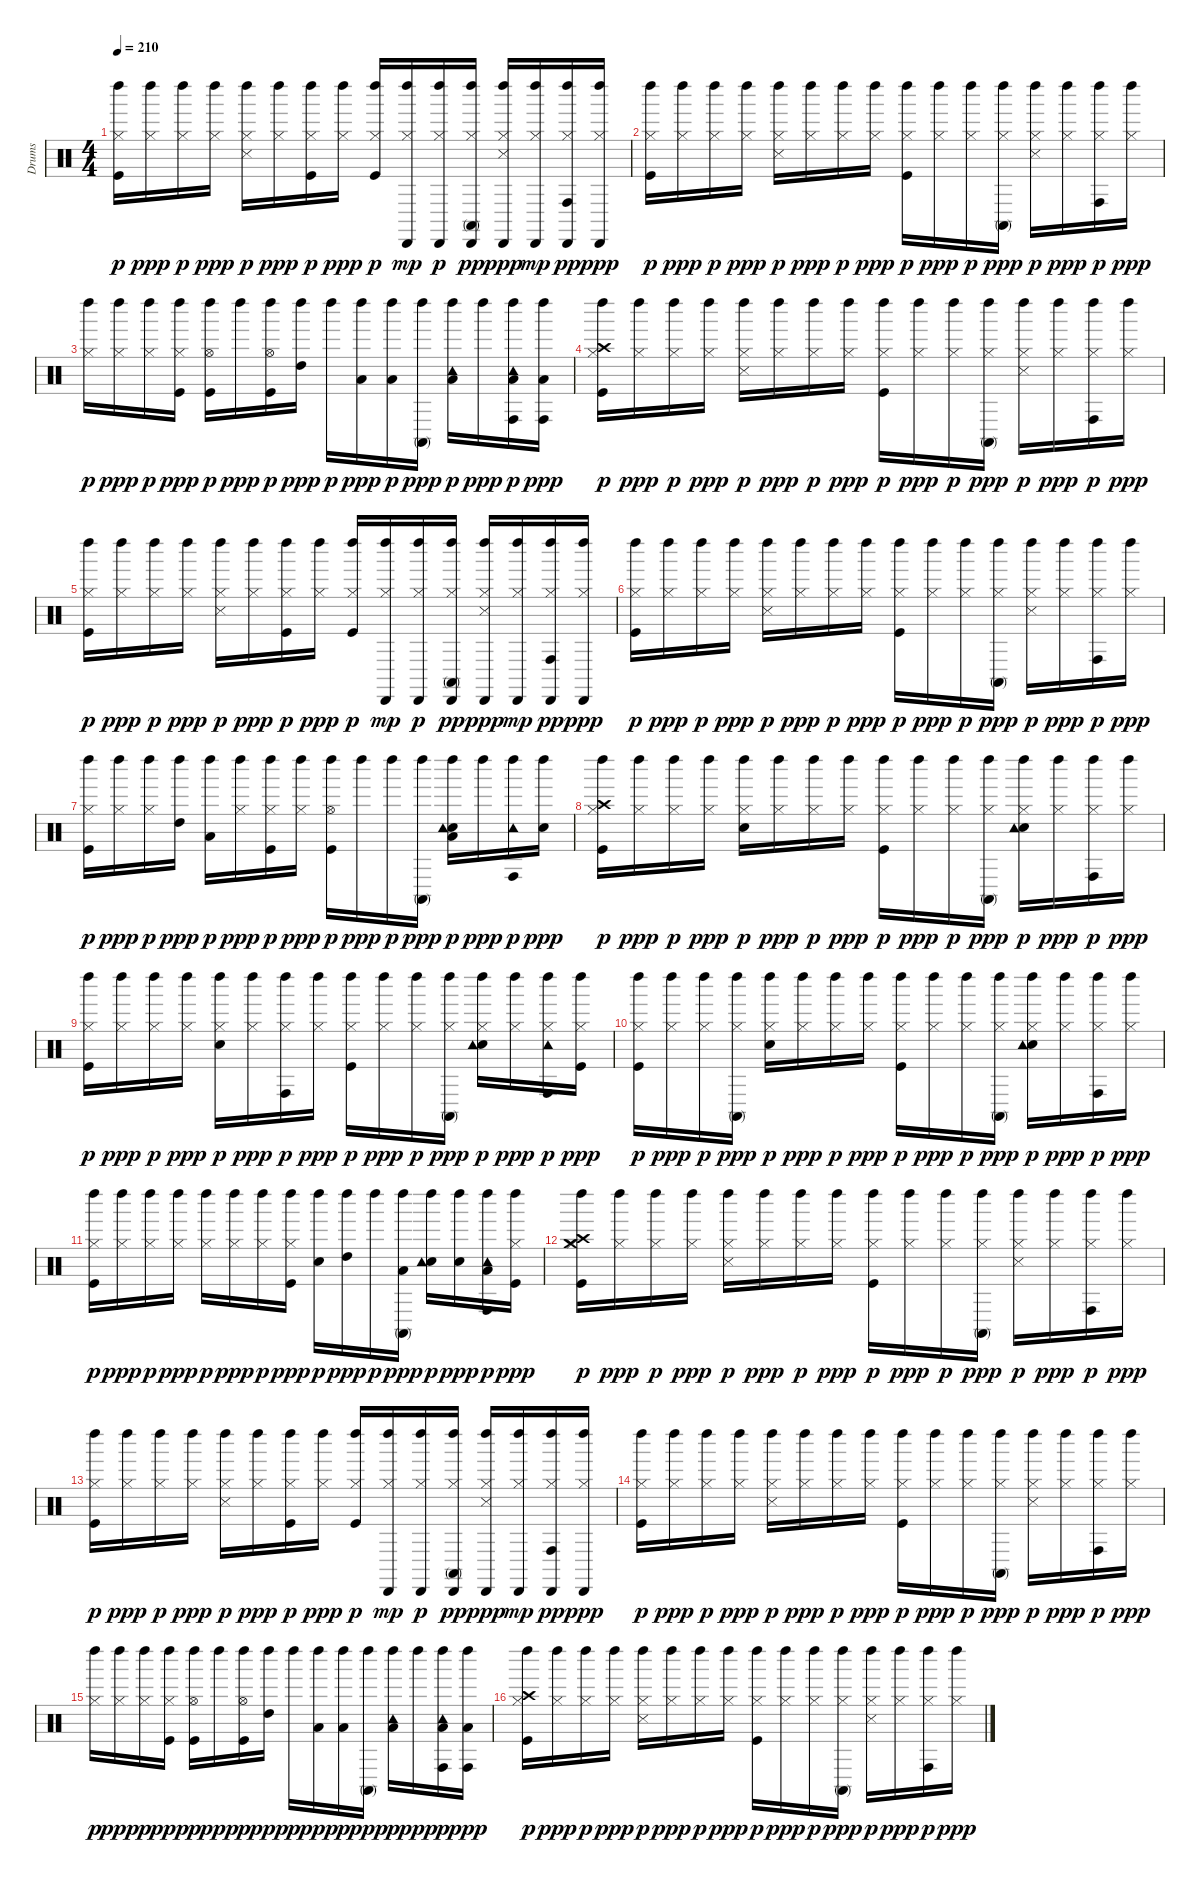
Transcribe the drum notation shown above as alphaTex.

\track ("Drums" "Drums") {instrument percussion}
\staff {score}
\articulation defaults
\ts (4 4)
\tempo 210
\clef neutral
\ks c
("Kick (hit)" "Hi-Hat (closed)" "Left Maraca (hit)").16{dy p} ("Hi-Hat (closed)" "Left Maraca (hit)").16{dy ppp} ("Hi-Hat (closed)" "Left Maraca (hit)").16{dy p} ("Hi-Hat (closed)" "Left Maraca (hit)").16{dy ppp} ("Hi-Hat (closed)" "Snare (side stick) 3" "Left Maraca (hit)").16{dy p} ("Hi-Hat (closed)" "Left Maraca (hit)").16{dy ppp} ("Kick (hit)" "Hi-Hat (closed)" "Left Maraca (hit)").16{dy p} ("Hi-Hat (closed)" "Left Maraca (hit)").16{dy ppp} ("Kick (hit)" "Hi-Hat (closed)" "Left Maraca (hit)").16{dy p} ("Hi-Hat (closed)" "Left Maraca (hit)" "Cabasa (hit)").16{dy mp} ("Hi-Hat (closed)" "Left Maraca (hit)" "Cabasa (hit)").16{dy p} ("Hi-Hat (closed)" "Conga high (mute)" "Left Maraca (hit)" "Cabasa (hit)").16{dy pp} ("Hi-Hat (closed)" "Snare (side stick) 3" "Left Maraca (hit)" "Cabasa (hit)").16{dy ppp} ("Hi-Hat (closed)" "Left Maraca (hit)" "Cabasa (hit)").16{dy mp} ("Hi-Hat (closed)" "Conga high (hit)" "Left Maraca (hit)" "Cabasa (hit)").16{dy pp} ("Hi-Hat (closed)" "Left Maraca (hit)" "Cabasa (hit)").16{dy ppp} |
("Kick (hit)" "Hi-Hat (closed)" "Left Maraca (hit)").16{dy p} ("Hi-Hat (closed)" "Left Maraca (hit)").16{dy ppp} ("Hi-Hat (closed)" "Left Maraca (hit)").16{dy p} ("Hi-Hat (closed)" "Left Maraca (hit)").16{dy ppp} ("Hi-Hat (closed)" "Snare (side stick) 3" "Left Maraca (hit)").16{dy p} ("Hi-Hat (closed)" "Left Maraca (hit)").16{dy ppp} ("Hi-Hat (closed)" "Left Maraca (hit)").16{dy p} ("Hi-Hat (closed)" "Left Maraca (hit)").16{dy ppp} ("Kick (hit)" "Hi-Hat (closed)" "Left Maraca (hit)").16{dy p} ("Hi-Hat (closed)" "Left Maraca (hit)").16{dy ppp} ("Hi-Hat (closed)" "Left Maraca (hit)").16{dy p} ("Hi-Hat (closed)" "Conga high (mute)" "Left Maraca (hit)").16{dy ppp} ("Hi-Hat (closed)" "Snare (side stick) 3" "Left Maraca (hit)").16{dy p} ("Hi-Hat (closed)" "Left Maraca (hit)").16{dy ppp} ("Hi-Hat (closed)" "Conga high (hit)" "Left Maraca (hit)").16{dy p} ("Hi-Hat (closed)" "Left Maraca (hit)").16{dy ppp} |
("Hi-Hat (closed)" "Left Maraca (hit)").16{dy p} ("Hi-Hat (closed)" "Left Maraca (hit)").16{dy ppp} ("Hi-Hat (closed)" "Left Maraca (hit)").16{dy p} ("Kick (hit)" "Hi-Hat (closed)" "Left Maraca (hit)").16{dy ppp} ("Kick (hit)" "Hi-Hat (open)" "Left Maraca (hit)").16{dy p} "Left Maraca (hit)".16{dy ppp} ("Kick (hit)" "Hi-Hat (open)" "Left Maraca (hit)").16{dy p} ("High Tom (hit)" "Left Maraca (hit)").16{dy ppp} "Left Maraca (hit)".16{dy p} ("Low Tom (hit)" "Left Maraca (hit)").16{dy ppp} ("Low Tom (hit)" "Left Maraca (hit)").16{dy p} ("Conga high (mute)" "Left Maraca (hit)").16{dy ppp} ("Low Tom (hit)" "Tambourine (hit)" "Left Maraca (hit)").16{dy p} "Left Maraca (hit)".16{dy ppp} ("Low Floor Tom (hit)" "Conga high (hit)" "Tambourine (hit)" "Left Maraca (hit)").16{dy p} ("Low Floor Tom (hit)" "Conga high (hit)" "Left Maraca (hit)").16{dy ppp} |
("Kick (hit)" "Hi-Hat (closed)" "Crash high (hit)" "Left Maraca (hit)").16{dy p} ("Hi-Hat (closed)" "Left Maraca (hit)").16{dy ppp} ("Hi-Hat (closed)" "Left Maraca (hit)").16{dy p} ("Hi-Hat (closed)" "Left Maraca (hit)").16{dy ppp} ("Hi-Hat (closed)" "Snare (side stick) 3" "Left Maraca (hit)").16{dy p} ("Hi-Hat (closed)" "Left Maraca (hit)").16{dy ppp} ("Hi-Hat (closed)" "Left Maraca (hit)").16{dy p} ("Hi-Hat (closed)" "Left Maraca (hit)").16{dy ppp} ("Kick (hit)" "Hi-Hat (closed)" "Left Maraca (hit)").16{dy p} ("Hi-Hat (closed)" "Left Maraca (hit)").16{dy ppp} ("Hi-Hat (closed)" "Left Maraca (hit)").16{dy p} ("Hi-Hat (closed)" "Conga high (mute)" "Left Maraca (hit)").16{dy ppp} ("Hi-Hat (closed)" "Snare (side stick) 3" "Left Maraca (hit)").16{dy p} ("Hi-Hat (closed)" "Left Maraca (hit)").16{dy ppp} ("Hi-Hat (closed)" "Conga high (hit)" "Left Maraca (hit)").16{dy p} ("Hi-Hat (closed)" "Left Maraca (hit)").16{dy ppp} |
("Kick (hit)" "Hi-Hat (closed)" "Left Maraca (hit)").16{dy p} ("Hi-Hat (closed)" "Left Maraca (hit)").16{dy ppp} ("Hi-Hat (closed)" "Left Maraca (hit)").16{dy p} ("Hi-Hat (closed)" "Left Maraca (hit)").16{dy ppp} ("Hi-Hat (closed)" "Snare (side stick) 3" "Left Maraca (hit)").16{dy p} ("Hi-Hat (closed)" "Left Maraca (hit)").16{dy ppp} ("Kick (hit)" "Hi-Hat (closed)" "Left Maraca (hit)").16{dy p} ("Hi-Hat (closed)" "Left Maraca (hit)").16{dy ppp} ("Kick (hit)" "Hi-Hat (closed)" "Left Maraca (hit)").16{dy p} ("Hi-Hat (closed)" "Left Maraca (hit)" "Cabasa (hit)").16{dy mp} ("Hi-Hat (closed)" "Left Maraca (hit)" "Cabasa (hit)").16{dy p} ("Hi-Hat (closed)" "Conga high (mute)" "Left Maraca (hit)" "Cabasa (hit)").16{dy pp} ("Hi-Hat (closed)" "Snare (side stick) 3" "Left Maraca (hit)" "Cabasa (hit)").16{dy ppp} ("Hi-Hat (closed)" "Left Maraca (hit)" "Cabasa (hit)").16{dy mp} ("Hi-Hat (closed)" "Conga high (hit)" "Left Maraca (hit)" "Cabasa (hit)").16{dy pp} ("Hi-Hat (closed)" "Left Maraca (hit)" "Cabasa (hit)").16{dy ppp} |
("Kick (hit)" "Hi-Hat (closed)" "Left Maraca (hit)").16{dy p} ("Hi-Hat (closed)" "Left Maraca (hit)").16{dy ppp} ("Hi-Hat (closed)" "Left Maraca (hit)").16{dy p} ("Hi-Hat (closed)" "Left Maraca (hit)").16{dy ppp} ("Hi-Hat (closed)" "Snare (side stick) 3" "Left Maraca (hit)").16{dy p} ("Hi-Hat (closed)" "Left Maraca (hit)").16{dy ppp} ("Hi-Hat (closed)" "Left Maraca (hit)").16{dy p} ("Hi-Hat (closed)" "Left Maraca (hit)").16{dy ppp} ("Kick (hit)" "Hi-Hat (closed)" "Left Maraca (hit)").16{dy p} ("Hi-Hat (closed)" "Left Maraca (hit)").16{dy ppp} ("Hi-Hat (closed)" "Left Maraca (hit)").16{dy p} ("Hi-Hat (closed)" "Conga high (mute)" "Left Maraca (hit)").16{dy ppp} ("Hi-Hat (closed)" "Snare (side stick) 3" "Left Maraca (hit)").16{dy p} ("Hi-Hat (closed)" "Left Maraca (hit)").16{dy ppp} ("Hi-Hat (closed)" "Conga high (hit)" "Left Maraca (hit)").16{dy p} ("Hi-Hat (closed)" "Left Maraca (hit)").16{dy ppp} |
("Kick (hit)" "Hi-Hat (closed)" "Left Maraca (hit)").16{dy p} ("Hi-Hat (closed)" "Left Maraca (hit)").16{dy ppp} ("Hi-Hat (closed)" "Left Maraca (hit)").16{dy p} ("High Tom (hit)" "Left Maraca (hit)").16{dy ppp} ("Low Tom (hit)" "Left Maraca (hit)").16{dy p} ("Hi-Hat (closed)" "Left Maraca (hit)").16{dy ppp} ("Kick (hit)" "Hi-Hat (closed)" "Left Maraca (hit)").16{dy p} ("Hi-Hat (closed)" "Left Maraca (hit)").16{dy ppp} ("Kick (hit)" "Hi-Hat (open)" "Left Maraca (hit)").16{dy p} "Left Maraca (hit)".16{dy ppp} "Left Maraca (hit)".16{dy p} ("Conga high (mute)" "Left Maraca (hit)").16{dy ppp} ("Snare (hit) 2" "Low Floor Tom (hit)" "Tambourine (hit)" "Left Maraca (hit)").16{dy p} "Left Maraca (hit)".16{dy ppp} ("Conga high (hit)" "Tambourine (hit)" "Left Maraca (hit)").16{dy p} ("Snare (hit) 2" "Left Maraca (hit)").16{dy ppp} |
("Kick (hit)" "Hi-Hat (closed)" "Crash high (hit)" "Left Maraca (hit)").16{dy p} ("Hi-Hat (closed)" "Left Maraca (hit)").16{dy ppp} ("Hi-Hat (closed)" "Left Maraca (hit)").16{dy p} ("Hi-Hat (closed)" "Left Maraca (hit)").16{dy ppp} ("Snare (hit) 2" "Hi-Hat (closed)" "Left Maraca (hit)").16{dy p} ("Hi-Hat (closed)" "Left Maraca (hit)").16{dy ppp} ("Hi-Hat (closed)" "Left Maraca (hit)").16{dy p} ("Hi-Hat (closed)" "Left Maraca (hit)").16{dy ppp} ("Kick (hit)" "Hi-Hat (closed)" "Left Maraca (hit)").16{dy p} ("Hi-Hat (closed)" "Left Maraca (hit)").16{dy ppp} ("Hi-Hat (closed)" "Left Maraca (hit)").16{dy p} ("Hi-Hat (closed)" "Conga high (mute)" "Left Maraca (hit)").16{dy ppp} ("Snare (hit) 2" "Hi-Hat (closed)" "Tambourine (hit)" "Left Maraca (hit)").16{dy p} ("Hi-Hat (closed)" "Left Maraca (hit)").16{dy ppp} ("Hi-Hat (closed)" "Conga high (hit)" "Left Maraca (hit)").16{dy p} ("Hi-Hat (closed)" "Left Maraca (hit)").16{dy ppp} |
("Kick (hit)" "Hi-Hat (closed)" "Left Maraca (hit)").16{dy p} ("Hi-Hat (closed)" "Left Maraca (hit)").16{dy ppp} ("Hi-Hat (closed)" "Left Maraca (hit)").16{dy p} ("Hi-Hat (closed)" "Left Maraca (hit)").16{dy ppp} ("Snare (hit) 2" "Hi-Hat (closed)" "Left Maraca (hit)").16{dy p} ("Hi-Hat (closed)" "Left Maraca (hit)").16{dy ppp} ("Hi-Hat (closed)" "Conga high (hit)" "Left Maraca (hit)").16{dy p} ("Hi-Hat (closed)" "Left Maraca (hit)").16{dy ppp} ("Kick (hit)" "Hi-Hat (closed)" "Left Maraca (hit)").16{dy p} ("Hi-Hat (closed)" "Left Maraca (hit)").16{dy ppp} ("Hi-Hat (closed)" "Left Maraca (hit)").16{dy p} ("Hi-Hat (closed)" "Conga high (mute)" "Left Maraca (hit)").16{dy ppp} ("Snare (hit) 2" "Hi-Hat (closed)" "Tambourine (hit)" "Left Maraca (hit)").16{dy p} ("Hi-Hat (closed)" "Left Maraca (hit)").16{dy ppp} ("Hi-Hat (closed)" "Conga high (hit)" "Tambourine (hit)" "Left Maraca (hit)").16{dy p} ("Kick (hit)" "Hi-Hat (closed)" "Left Maraca (hit)").16{dy ppp} |
("Kick (hit)" "Hi-Hat (closed)" "Left Maraca (hit)").16{dy p} ("Hi-Hat (closed)" "Left Maraca (hit)").16{dy ppp} ("Hi-Hat (closed)" "Left Maraca (hit)").16{dy p} ("Hi-Hat (closed)" "Conga high (mute)" "Left Maraca (hit)").16{dy ppp} ("Snare (hit) 2" "Hi-Hat (closed)" "Left Maraca (hit)").16{dy p} ("Hi-Hat (closed)" "Left Maraca (hit)").16{dy ppp} ("Hi-Hat (closed)" "Left Maraca (hit)").16{dy p} ("Hi-Hat (closed)" "Left Maraca (hit)").16{dy ppp} ("Kick (hit)" "Hi-Hat (closed)" "Left Maraca (hit)").16{dy p} ("Hi-Hat (closed)" "Left Maraca (hit)").16{dy ppp} ("Hi-Hat (closed)" "Left Maraca (hit)").16{dy p} ("Hi-Hat (closed)" "Conga high (mute)" "Left Maraca (hit)").16{dy ppp} ("Snare (hit) 2" "Hi-Hat (closed)" "Tambourine (hit)" "Left Maraca (hit)").16{dy p} ("Hi-Hat (closed)" "Left Maraca (hit)").16{dy ppp} ("Hi-Hat (closed)" "Conga high (hit)" "Left Maraca (hit)").16{dy p} ("Hi-Hat (closed)" "Left Maraca (hit)").16{dy ppp} |
("Kick (hit)" "Hi-Hat (closed)" "Left Maraca (hit)").16{dy p} ("Hi-Hat (closed)" "Left Maraca (hit)").16{dy ppp} ("Hi-Hat (closed)" "Left Maraca (hit)").16{dy p} ("Hi-Hat (closed)" "Left Maraca (hit)").16{dy ppp} ("Hi-Hat (closed)" "Left Maraca (hit)").16{dy p} ("Hi-Hat (closed)" "Left Maraca (hit)").16{dy ppp} ("Hi-Hat (closed)" "Left Maraca (hit)").16{dy p} ("Kick (hit)" "Hi-Hat (closed)" "Left Maraca (hit)").16{dy ppp} ("Snare (hit) 2" "Left Maraca (hit)").16{dy p} ("High Tom (hit)" "Left Maraca (hit)").16{dy ppp} "Left Maraca (hit)".16{dy p} ("Low Tom (hit)" "Conga high (mute)" "Left Maraca (hit)").16{dy ppp} ("Snare (hit) 2" "Tambourine (hit)" "Left Maraca (hit)").16{dy p} ("Snare (hit) 2" "Left Maraca (hit)").16{dy ppp} ("Low Floor Tom (hit)" "Conga high (hit)" "Tambourine (hit)" "Left Maraca (hit)").16{dy p} ("Kick (hit)" "Hi-Hat (closed)" "Left Maraca (hit)").16{dy ppp} |
("Crash medium (hit)" "Kick (hit)" "Hi-Hat (closed)" "Crash high (hit)" "Left Maraca (hit)").16{dy p} ("Hi-Hat (closed)" "Left Maraca (hit)").16{dy ppp} ("Hi-Hat (closed)" "Left Maraca (hit)").16{dy p} ("Hi-Hat (closed)" "Left Maraca (hit)").16{dy ppp} ("Hi-Hat (closed)" "Snare (side stick) 3" "Left Maraca (hit)").16{dy p} ("Hi-Hat (closed)" "Left Maraca (hit)").16{dy ppp} ("Hi-Hat (closed)" "Left Maraca (hit)").16{dy p} ("Hi-Hat (closed)" "Left Maraca (hit)").16{dy ppp} ("Kick (hit)" "Hi-Hat (closed)" "Left Maraca (hit)").16{dy p} ("Hi-Hat (closed)" "Left Maraca (hit)").16{dy ppp} ("Hi-Hat (closed)" "Left Maraca (hit)").16{dy p} ("Hi-Hat (closed)" "Conga high (mute)" "Left Maraca (hit)").16{dy ppp} ("Hi-Hat (closed)" "Snare (side stick) 3" "Left Maraca (hit)").16{dy p} ("Hi-Hat (closed)" "Left Maraca (hit)").16{dy ppp} ("Hi-Hat (closed)" "Conga high (hit)" "Left Maraca (hit)").16{dy p} ("Hi-Hat (closed)" "Left Maraca (hit)").16{dy ppp} |
("Kick (hit)" "Hi-Hat (closed)" "Left Maraca (hit)").16{dy p} ("Hi-Hat (closed)" "Left Maraca (hit)").16{dy ppp} ("Hi-Hat (closed)" "Left Maraca (hit)").16{dy p} ("Hi-Hat (closed)" "Left Maraca (hit)").16{dy ppp} ("Hi-Hat (closed)" "Snare (side stick) 3" "Left Maraca (hit)").16{dy p} ("Hi-Hat (closed)" "Left Maraca (hit)").16{dy ppp} ("Kick (hit)" "Hi-Hat (closed)" "Left Maraca (hit)").16{dy p} ("Hi-Hat (closed)" "Left Maraca (hit)").16{dy ppp} ("Kick (hit)" "Hi-Hat (closed)" "Left Maraca (hit)").16{dy p} ("Hi-Hat (closed)" "Left Maraca (hit)" "Cabasa (hit)").16{dy mp} ("Hi-Hat (closed)" "Left Maraca (hit)" "Cabasa (hit)").16{dy p} ("Hi-Hat (closed)" "Conga high (mute)" "Left Maraca (hit)" "Cabasa (hit)").16{dy pp} ("Hi-Hat (closed)" "Snare (side stick) 3" "Left Maraca (hit)" "Cabasa (hit)").16{dy ppp} ("Hi-Hat (closed)" "Left Maraca (hit)" "Cabasa (hit)").16{dy mp} ("Hi-Hat (closed)" "Conga high (hit)" "Left Maraca (hit)" "Cabasa (hit)").16{dy pp} ("Hi-Hat (closed)" "Left Maraca (hit)" "Cabasa (hit)").16{dy ppp} |
("Kick (hit)" "Hi-Hat (closed)" "Left Maraca (hit)").16{dy p} ("Hi-Hat (closed)" "Left Maraca (hit)").16{dy ppp} ("Hi-Hat (closed)" "Left Maraca (hit)").16{dy p} ("Hi-Hat (closed)" "Left Maraca (hit)").16{dy ppp} ("Hi-Hat (closed)" "Snare (side stick) 3" "Left Maraca (hit)").16{dy p} ("Hi-Hat (closed)" "Left Maraca (hit)").16{dy ppp} ("Hi-Hat (closed)" "Left Maraca (hit)").16{dy p} ("Hi-Hat (closed)" "Left Maraca (hit)").16{dy ppp} ("Kick (hit)" "Hi-Hat (closed)" "Left Maraca (hit)").16{dy p} ("Hi-Hat (closed)" "Left Maraca (hit)").16{dy ppp} ("Hi-Hat (closed)" "Left Maraca (hit)").16{dy p} ("Hi-Hat (closed)" "Conga high (mute)" "Left Maraca (hit)").16{dy ppp} ("Hi-Hat (closed)" "Snare (side stick) 3" "Left Maraca (hit)").16{dy p} ("Hi-Hat (closed)" "Left Maraca (hit)").16{dy ppp} ("Hi-Hat (closed)" "Conga high (hit)" "Left Maraca (hit)").16{dy p} ("Hi-Hat (closed)" "Left Maraca (hit)").16{dy ppp} |
("Hi-Hat (closed)" "Left Maraca (hit)").16{dy p} ("Hi-Hat (closed)" "Left Maraca (hit)").16{dy ppp} ("Hi-Hat (closed)" "Left Maraca (hit)").16{dy p} ("Kick (hit)" "Hi-Hat (closed)" "Left Maraca (hit)").16{dy ppp} ("Kick (hit)" "Hi-Hat (open)" "Left Maraca (hit)").16{dy p} "Left Maraca (hit)".16{dy ppp} ("Kick (hit)" "Hi-Hat (open)" "Left Maraca (hit)").16{dy p} ("High Tom (hit)" "Left Maraca (hit)").16{dy ppp} "Left Maraca (hit)".16{dy p} ("Low Tom (hit)" "Left Maraca (hit)").16{dy ppp} ("Low Tom (hit)" "Left Maraca (hit)").16{dy p} ("Conga high (mute)" "Left Maraca (hit)").16{dy ppp} ("Low Tom (hit)" "Tambourine (hit)" "Left Maraca (hit)").16{dy p} "Left Maraca (hit)".16{dy ppp} ("Low Floor Tom (hit)" "Conga high (hit)" "Tambourine (hit)" "Left Maraca (hit)").16{dy p} ("Low Floor Tom (hit)" "Conga high (hit)" "Left Maraca (hit)").16{dy ppp} |
("Kick (hit)" "Hi-Hat (closed)" "Crash high (hit)" "Left Maraca (hit)").16{dy p} ("Hi-Hat (closed)" "Left Maraca (hit)").16{dy ppp} ("Hi-Hat (closed)" "Left Maraca (hit)").16{dy p} ("Hi-Hat (closed)" "Left Maraca (hit)").16{dy ppp} ("Hi-Hat (closed)" "Snare (side stick) 3" "Left Maraca (hit)").16{dy p} ("Hi-Hat (closed)" "Left Maraca (hit)").16{dy ppp} ("Hi-Hat (closed)" "Left Maraca (hit)").16{dy p} ("Hi-Hat (closed)" "Left Maraca (hit)").16{dy ppp} ("Kick (hit)" "Hi-Hat (closed)" "Left Maraca (hit)").16{dy p} ("Hi-Hat (closed)" "Left Maraca (hit)").16{dy ppp} ("Hi-Hat (closed)" "Left Maraca (hit)").16{dy p} ("Hi-Hat (closed)" "Conga high (mute)" "Left Maraca (hit)").16{dy ppp} ("Hi-Hat (closed)" "Snare (side stick) 3" "Left Maraca (hit)").16{dy p} ("Hi-Hat (closed)" "Left Maraca (hit)").16{dy ppp} ("Hi-Hat (closed)" "Conga high (hit)" "Left Maraca (hit)").16{dy p} ("Hi-Hat (closed)" "Left Maraca (hit)").16{dy ppp}
